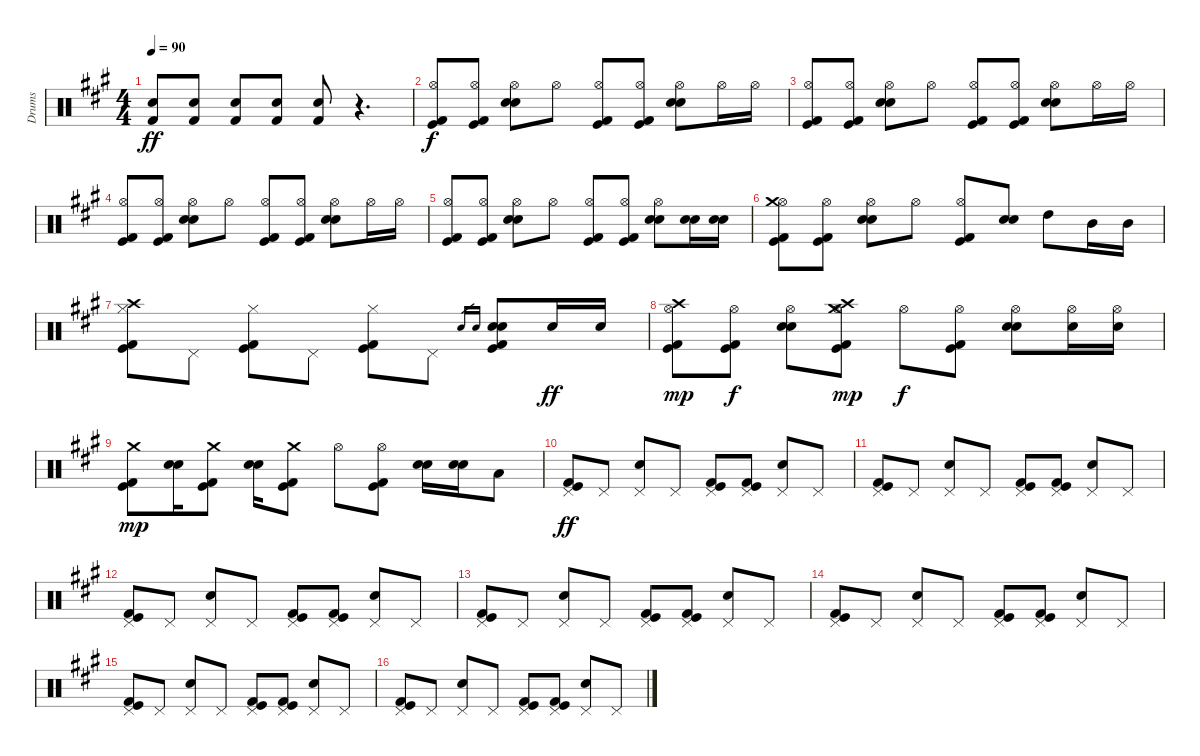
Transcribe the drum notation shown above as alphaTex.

\track ("Drums" "Drums") {instrument percussion}
\staff {score}
\articulation defaults
\ts (4 4)
\tempo 90
\clef neutral
\ks a
("Kick (hit) 2" "Snare (hit) 2").8{dy ff} ("Kick (hit) 2" "Snare (hit) 2").8 ("Kick (hit) 2" "Snare (hit) 2").8 ("Kick (hit) 2" "Snare (hit) 2").8 ("Kick (hit) 2" "Snare (hit) 2").8 r.4{d} |
("Hi-Hat (open)" "Kick (hit) 2" "Kick (hit)").8{dy f} ("Hi-Hat (open)" "Kick (hit) 2" "Kick (hit)").8 ("Hi-Hat (open)" "Electric Snare (hit)" "Snare (hit) 2").8 "Hi-Hat (open)".8 ("Hi-Hat (open)" "Kick (hit) 2" "Kick (hit)").8 ("Hi-Hat (open)" "Kick (hit) 2" "Kick (hit)").8 ("Hi-Hat (open)" "Electric Snare (hit)" "Snare (hit) 2").8 "Hi-Hat (open)".16 "Hi-Hat (open)".16 |
("Hi-Hat (open)" "Kick (hit) 2" "Kick (hit)").8 ("Hi-Hat (open)" "Kick (hit) 2" "Kick (hit)").8 ("Hi-Hat (open)" "Electric Snare (hit)" "Snare (hit) 2").8 "Hi-Hat (open)".8 ("Hi-Hat (open)" "Kick (hit) 2" "Kick (hit)").8 ("Hi-Hat (open)" "Kick (hit) 2" "Kick (hit)").8 ("Hi-Hat (open)" "Electric Snare (hit)" "Snare (hit) 2").8 "Hi-Hat (open)".16 "Hi-Hat (open)".16 |
("Hi-Hat (open)" "Kick (hit) 2" "Kick (hit)").8 ("Hi-Hat (open)" "Kick (hit) 2" "Kick (hit)").8 ("Hi-Hat (open)" "Electric Snare (hit)" "Snare (hit) 2").8 "Hi-Hat (open)".8 ("Hi-Hat (open)" "Kick (hit) 2" "Kick (hit)").8 ("Hi-Hat (open)" "Kick (hit) 2" "Kick (hit)").8 ("Hi-Hat (open)" "Electric Snare (hit)" "Snare (hit) 2").8 "Hi-Hat (open)".16 "Hi-Hat (open)".16 |
("Hi-Hat (open)" "Kick (hit) 2" "Kick (hit)").8 ("Hi-Hat (open)" "Kick (hit) 2" "Kick (hit)").8 ("Hi-Hat (open)" "Electric Snare (hit)" "Snare (hit) 2").8 "Hi-Hat (open)".8 ("Hi-Hat (open)" "Kick (hit) 2" "Kick (hit)").8 ("Hi-Hat (open)" "Kick (hit) 2" "Kick (hit)").8 ("Hi-Hat (open)" "Electric Snare (hit)" "Snare (hit) 2").8 ("Electric Snare (hit)" "Snare (hit) 2").16 ("Electric Snare (hit)" "Snare (hit) 2").16 |
("Hi-Hat (open)" "Crash medium (hit)" "Kick (hit) 2" "Kick (hit)").8 ("Hi-Hat (open)" "Kick (hit) 2" "Kick (hit)").8 ("Hi-Hat (open)" "Electric Snare (hit)" "Snare (hit) 2").8 "Hi-Hat (open)".8 ("Hi-Hat (open)" "Kick (hit) 2" "Kick (hit)").8 ("Electric Snare (hit)" "Snare (hit) 2").8 "High Tom (hit)".8 "Mid Tom (hit)".16 "Mid Tom (hit)".16 |
("Hi-Hat (closed)" "Crash high (hit)" "Kick (hit) 2" "Kick (hit)").8 "Pedal Hi-Hat (hit)".8 ("Hi-Hat (closed)" "Kick (hit) 2" "Kick (hit)").8 "Pedal Hi-Hat (hit)".8 ("Hi-Hat (closed)" "Kick (hit) 2" "Kick (hit)").8 "Pedal Hi-Hat (hit)".8 "Snare (hit) 2".16{gr} "Electric Snare (hit)".16{gr} ("Snare (hit) 2" "Electric Snare (hit)" "Kick (hit)" "Kick (hit) 2").8 "Electric Snare (hit)".16{dy ff} "Electric Snare (hit)".16 |
("Hi-Hat (open)" "Crash high (hit)" "Kick (hit) 2" "Kick (hit)").8{dy mp} ("Hi-Hat (open)" "Kick (hit) 2" "Kick (hit)").8{dy f} ("Hi-Hat (open)" "Electric Snare (hit)" "Snare (hit) 2").8 ("Hi-Hat (open)" "Crash medium (hit)" "Crash high (hit)" "Kick (hit) 2" "Kick (hit)").8{dy mp} "Hi-Hat (open)".8{dy f} ("Hi-Hat (open)" "Kick (hit) 2" "Kick (hit)").8 ("Hi-Hat (open)" "Electric Snare (hit)" "Snare (hit) 2").8 ("Hi-Hat (open)" "Electric Snare (hit)").16 ("Hi-Hat (open)" "Electric Snare (hit)").16 |
("Kick (hit) 2" "Crash medium (hit)" "Kick (hit)").8{dy mp} ("Electric Snare (hit)" "Snare (hit) 2").16 ("Kick (hit) 2" "Crash medium (hit)" "Kick (hit)").8 ("Electric Snare (hit)" "Snare (hit) 2").16 ("Kick (hit) 2" "Crash medium (hit)" "Kick (hit)").8 "Hi-Hat (open)".8 ("Hi-Hat (open)" "Kick (hit) 2" "Kick (hit)").8 ("Electric Snare (hit)" "Snare (hit) 2").16 ("Electric Snare (hit)" "Snare (hit) 2").16 "Low Tom (hit)".8 |
("Kick (hit)" "Kick (hit) 2" "Pedal Hi-Hat (hit)").8{dy ff} "Pedal Hi-Hat (hit)".8 ("Snare (hit) 2" "Pedal Hi-Hat (hit)").8 "Pedal Hi-Hat (hit)".8 ("Kick (hit)" "Kick (hit) 2" "Pedal Hi-Hat (hit)").8 ("Kick (hit)" "Kick (hit) 2" "Pedal Hi-Hat (hit)").8 ("Snare (hit) 2" "Pedal Hi-Hat (hit)").8 "Pedal Hi-Hat (hit)".8 |
("Kick (hit)" "Kick (hit) 2" "Pedal Hi-Hat (hit)").8 "Pedal Hi-Hat (hit)".8 ("Snare (hit) 2" "Pedal Hi-Hat (hit)").8 "Pedal Hi-Hat (hit)".8 ("Kick (hit)" "Kick (hit) 2" "Pedal Hi-Hat (hit)").8 ("Kick (hit)" "Kick (hit) 2" "Pedal Hi-Hat (hit)").8 ("Snare (hit) 2" "Pedal Hi-Hat (hit)").8 "Pedal Hi-Hat (hit)".8 |
("Kick (hit)" "Kick (hit) 2" "Pedal Hi-Hat (hit)").8 "Pedal Hi-Hat (hit)".8 ("Snare (hit) 2" "Pedal Hi-Hat (hit)").8 "Pedal Hi-Hat (hit)".8 ("Kick (hit)" "Kick (hit) 2" "Pedal Hi-Hat (hit)").8 ("Kick (hit)" "Kick (hit) 2" "Pedal Hi-Hat (hit)").8 ("Snare (hit) 2" "Pedal Hi-Hat (hit)").8 "Pedal Hi-Hat (hit)".8 |
("Kick (hit)" "Kick (hit) 2" "Pedal Hi-Hat (hit)").8 "Pedal Hi-Hat (hit)".8 ("Snare (hit) 2" "Pedal Hi-Hat (hit)").8 "Pedal Hi-Hat (hit)".8 ("Kick (hit)" "Kick (hit) 2" "Pedal Hi-Hat (hit)").8 ("Kick (hit)" "Kick (hit) 2" "Pedal Hi-Hat (hit)").8 ("Snare (hit) 2" "Pedal Hi-Hat (hit)").8 "Pedal Hi-Hat (hit)".8 |
("Kick (hit)" "Kick (hit) 2" "Pedal Hi-Hat (hit)").8 "Pedal Hi-Hat (hit)".8 ("Snare (hit) 2" "Pedal Hi-Hat (hit)").8 "Pedal Hi-Hat (hit)".8 ("Kick (hit)" "Kick (hit) 2" "Pedal Hi-Hat (hit)").8 ("Kick (hit)" "Kick (hit) 2" "Pedal Hi-Hat (hit)").8 ("Snare (hit) 2" "Pedal Hi-Hat (hit)").8 "Pedal Hi-Hat (hit)".8 |
("Kick (hit)" "Kick (hit) 2" "Pedal Hi-Hat (hit)").8 "Pedal Hi-Hat (hit)".8 ("Snare (hit) 2" "Pedal Hi-Hat (hit)").8 "Pedal Hi-Hat (hit)".8 ("Kick (hit)" "Kick (hit) 2" "Pedal Hi-Hat (hit)").8 ("Kick (hit)" "Kick (hit) 2" "Pedal Hi-Hat (hit)").8 ("Snare (hit) 2" "Pedal Hi-Hat (hit)").8 "Pedal Hi-Hat (hit)".8 |
("Kick (hit)" "Kick (hit) 2" "Pedal Hi-Hat (hit)").8 "Pedal Hi-Hat (hit)".8 ("Snare (hit) 2" "Pedal Hi-Hat (hit)").8 "Pedal Hi-Hat (hit)".8 ("Kick (hit)" "Kick (hit) 2" "Pedal Hi-Hat (hit)").8 ("Kick (hit)" "Kick (hit) 2" "Pedal Hi-Hat (hit)").8 ("Snare (hit) 2" "Pedal Hi-Hat (hit)").8 "Pedal Hi-Hat (hit)".8
